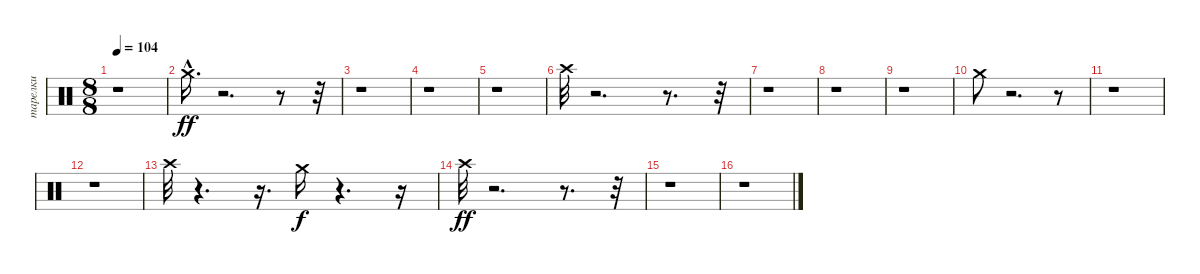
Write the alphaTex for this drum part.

\track ("тарелки" "тарелки") {instrument percussion}
\staff {score}
\articulation defaults
\ts (8 8)
\tempo 104
\clef neutral
\ks c
r.1{dy ff} |
"Crash medium (hit)"{hac}.16{d} r.2{d} r.8 r.32 |
r.1 |
r.1 |
r.1 |
"Crash high (hit)".32 r.2{d} r.8{d} r.32 |
r.1 |
r.1 |
r.1 |
"Crash medium (hit)".8 r.2{d} r.8 |
r.1 |
r.1 |
"Crash high (hit)".32 r.4{d} r.16{d} "Crash medium (hit)".16{dy f} r.4{d} r.16 |
"Crash high (hit)".32{dy ff} r.2{d} r.8{d} r.32 |
r.1 |
r.1
